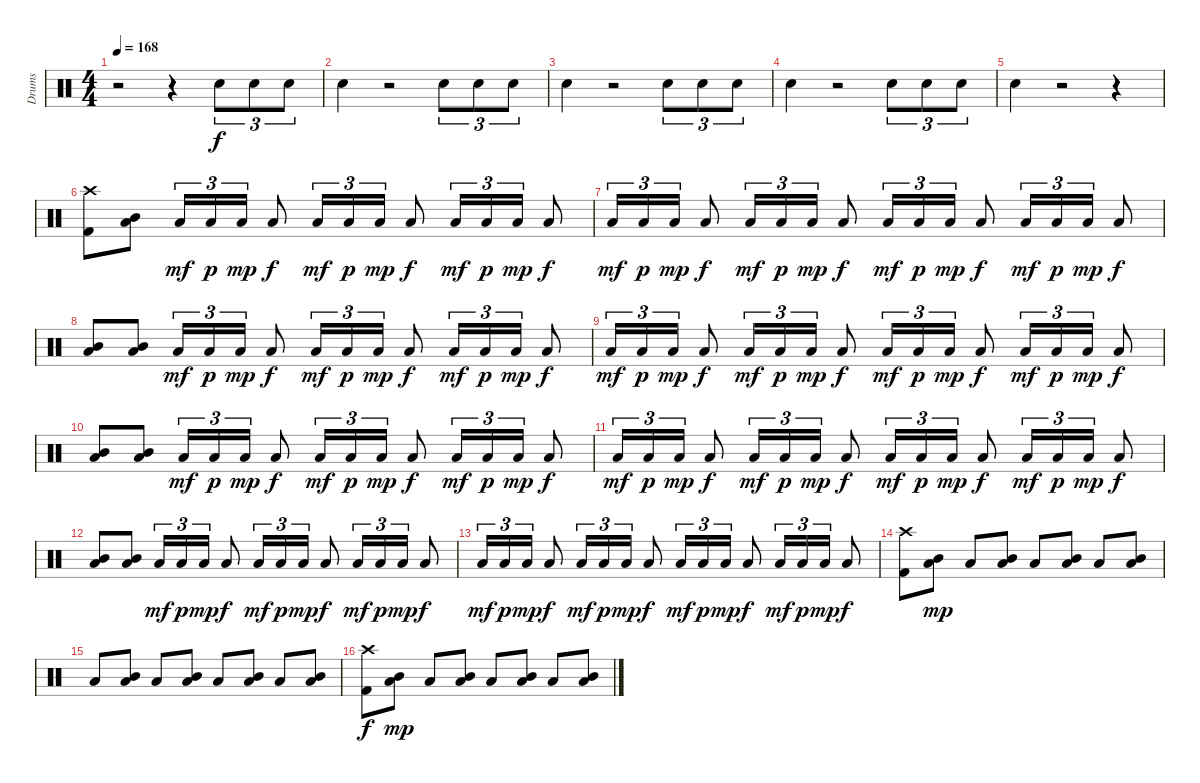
\track ("Drums" "Drums") {instrument percussion}
\staff {score}
\articulation defaults
\ts (4 4)
\tempo 168
\clef neutral
\ks c
r.2{dy f} r.4 "Snare (hit) 2".8{tu (3 2)} "Snare (hit) 2".8{tu (3 2)} "Snare (hit) 2".8{tu (3 2)} |
"Snare (hit) 2".4 r.2 "Snare (hit) 2".8{tu (3 2)} "Snare (hit) 2".8{tu (3 2)} "Snare (hit) 2".8{tu (3 2)} |
"Snare (hit) 2".4 r.2 "Snare (hit) 2".8{tu (3 2)} "Snare (hit) 2".8{tu (3 2)} "Snare (hit) 2".8{tu (3 2)} |
"Snare (hit) 2".4 r.2 "Snare (hit) 2".8{tu (3 2)} "Snare (hit) 2".8{tu (3 2)} "Snare (hit) 2".8{tu (3 2)} |
"Snare (hit) 2".4 r.2 r.4 |
("Crash high (hit)" "Kick (hit) 2").8 ("Mid Tom (hit)" "Low Tom (hit)").8 "Low Tom (hit)".16{tu (3 2) dy mf} "Low Tom (hit)".16{tu (3 2) dy p} "Low Tom (hit)".16{tu (3 2) dy mp} "Low Tom (hit)".8{dy f} "Low Tom (hit)".16{tu (3 2) dy mf} "Low Tom (hit)".16{tu (3 2) dy p} "Low Tom (hit)".16{tu (3 2) dy mp} "Low Tom (hit)".8{dy f} "Low Tom (hit)".16{tu (3 2) dy mf} "Low Tom (hit)".16{tu (3 2) dy p} "Low Tom (hit)".16{tu (3 2) dy mp} "Low Tom (hit)".8{dy f} |
"Low Tom (hit)".16{tu (3 2) dy mf} "Low Tom (hit)".16{tu (3 2) dy p} "Low Tom (hit)".16{tu (3 2) dy mp} "Low Tom (hit)".8{dy f} "Low Tom (hit)".16{tu (3 2) dy mf} "Low Tom (hit)".16{tu (3 2) dy p} "Low Tom (hit)".16{tu (3 2) dy mp} "Low Tom (hit)".8{dy f} "Low Tom (hit)".16{tu (3 2) dy mf} "Low Tom (hit)".16{tu (3 2) dy p} "Low Tom (hit)".16{tu (3 2) dy mp} "Low Tom (hit)".8{dy f} "Low Tom (hit)".16{tu (3 2) dy mf} "Low Tom (hit)".16{tu (3 2) dy p} "Low Tom (hit)".16{tu (3 2) dy mp} "Low Tom (hit)".8{dy f} |
("Mid Tom (hit)" "Low Tom (hit)").8 ("Mid Tom (hit)" "Low Tom (hit)").8 "Low Tom (hit)".16{tu (3 2) dy mf} "Low Tom (hit)".16{tu (3 2) dy p} "Low Tom (hit)".16{tu (3 2) dy mp} "Low Tom (hit)".8{dy f} "Low Tom (hit)".16{tu (3 2) dy mf} "Low Tom (hit)".16{tu (3 2) dy p} "Low Tom (hit)".16{tu (3 2) dy mp} "Low Tom (hit)".8{dy f} "Low Tom (hit)".16{tu (3 2) dy mf} "Low Tom (hit)".16{tu (3 2) dy p} "Low Tom (hit)".16{tu (3 2) dy mp} "Low Tom (hit)".8{dy f} |
"Low Tom (hit)".16{tu (3 2) dy mf} "Low Tom (hit)".16{tu (3 2) dy p} "Low Tom (hit)".16{tu (3 2) dy mp} "Low Tom (hit)".8{dy f} "Low Tom (hit)".16{tu (3 2) dy mf} "Low Tom (hit)".16{tu (3 2) dy p} "Low Tom (hit)".16{tu (3 2) dy mp} "Low Tom (hit)".8{dy f} "Low Tom (hit)".16{tu (3 2) dy mf} "Low Tom (hit)".16{tu (3 2) dy p} "Low Tom (hit)".16{tu (3 2) dy mp} "Low Tom (hit)".8{dy f} "Low Tom (hit)".16{tu (3 2) dy mf} "Low Tom (hit)".16{tu (3 2) dy p} "Low Tom (hit)".16{tu (3 2) dy mp} "Low Tom (hit)".8{dy f} |
("Mid Tom (hit)" "Low Tom (hit)").8 ("Mid Tom (hit)" "Low Tom (hit)").8 "Low Tom (hit)".16{tu (3 2) dy mf} "Low Tom (hit)".16{tu (3 2) dy p} "Low Tom (hit)".16{tu (3 2) dy mp} "Low Tom (hit)".8{dy f} "Low Tom (hit)".16{tu (3 2) dy mf} "Low Tom (hit)".16{tu (3 2) dy p} "Low Tom (hit)".16{tu (3 2) dy mp} "Low Tom (hit)".8{dy f} "Low Tom (hit)".16{tu (3 2) dy mf} "Low Tom (hit)".16{tu (3 2) dy p} "Low Tom (hit)".16{tu (3 2) dy mp} "Low Tom (hit)".8{dy f} |
"Low Tom (hit)".16{tu (3 2) dy mf} "Low Tom (hit)".16{tu (3 2) dy p} "Low Tom (hit)".16{tu (3 2) dy mp} "Low Tom (hit)".8{dy f} "Low Tom (hit)".16{tu (3 2) dy mf} "Low Tom (hit)".16{tu (3 2) dy p} "Low Tom (hit)".16{tu (3 2) dy mp} "Low Tom (hit)".8{dy f} "Low Tom (hit)".16{tu (3 2) dy mf} "Low Tom (hit)".16{tu (3 2) dy p} "Low Tom (hit)".16{tu (3 2) dy mp} "Low Tom (hit)".8{dy f} "Low Tom (hit)".16{tu (3 2) dy mf} "Low Tom (hit)".16{tu (3 2) dy p} "Low Tom (hit)".16{tu (3 2) dy mp} "Low Tom (hit)".8{dy f} |
("Mid Tom (hit)" "Low Tom (hit)").8 ("Mid Tom (hit)" "Low Tom (hit)").8 "Low Tom (hit)".16{tu (3 2) dy mf} "Low Tom (hit)".16{tu (3 2) dy p} "Low Tom (hit)".16{tu (3 2) dy mp} "Low Tom (hit)".8{dy f} "Low Tom (hit)".16{tu (3 2) dy mf} "Low Tom (hit)".16{tu (3 2) dy p} "Low Tom (hit)".16{tu (3 2) dy mp} "Low Tom (hit)".8{dy f} "Low Tom (hit)".16{tu (3 2) dy mf} "Low Tom (hit)".16{tu (3 2) dy p} "Low Tom (hit)".16{tu (3 2) dy mp} "Low Tom (hit)".8{dy f} |
"Low Tom (hit)".16{tu (3 2) dy mf} "Low Tom (hit)".16{tu (3 2) dy p} "Low Tom (hit)".16{tu (3 2) dy mp} "Low Tom (hit)".8{dy f} "Low Tom (hit)".16{tu (3 2) dy mf} "Low Tom (hit)".16{tu (3 2) dy p} "Low Tom (hit)".16{tu (3 2) dy mp} "Low Tom (hit)".8{dy f} "Low Tom (hit)".16{tu (3 2) dy mf} "Low Tom (hit)".16{tu (3 2) dy p} "Low Tom (hit)".16{tu (3 2) dy mp} "Low Tom (hit)".8{dy f} "Low Tom (hit)".16{tu (3 2) dy mf} "Low Tom (hit)".16{tu (3 2) dy p} "Low Tom (hit)".16{tu (3 2) dy mp} "Low Tom (hit)".8{dy f} |
("Crash high (hit)" "Kick (hit) 2").8 ("Mid Tom (hit)" "Low Tom (hit)").8{dy mp} "Low Tom (hit)".8 ("Mid Tom (hit)" "Low Tom (hit)").8 "Low Tom (hit)".8 ("Mid Tom (hit)" "Low Tom (hit)").8 "Low Tom (hit)".8 ("Mid Tom (hit)" "Low Tom (hit)").8 |
"Low Tom (hit)".8 ("Mid Tom (hit)" "Low Tom (hit)").8 "Low Tom (hit)".8 ("Mid Tom (hit)" "Low Tom (hit)").8 "Low Tom (hit)".8 ("Mid Tom (hit)" "Low Tom (hit)").8 "Low Tom (hit)".8 ("Mid Tom (hit)" "Low Tom (hit)").8 |
("Crash high (hit)" "Kick (hit) 2").8{dy f} ("Mid Tom (hit)" "Low Tom (hit)").8{dy mp} "Low Tom (hit)".8 ("Mid Tom (hit)" "Low Tom (hit)").8 "Low Tom (hit)".8 ("Mid Tom (hit)" "Low Tom (hit)").8 "Low Tom (hit)".8 ("Mid Tom (hit)" "Low Tom (hit)").8
